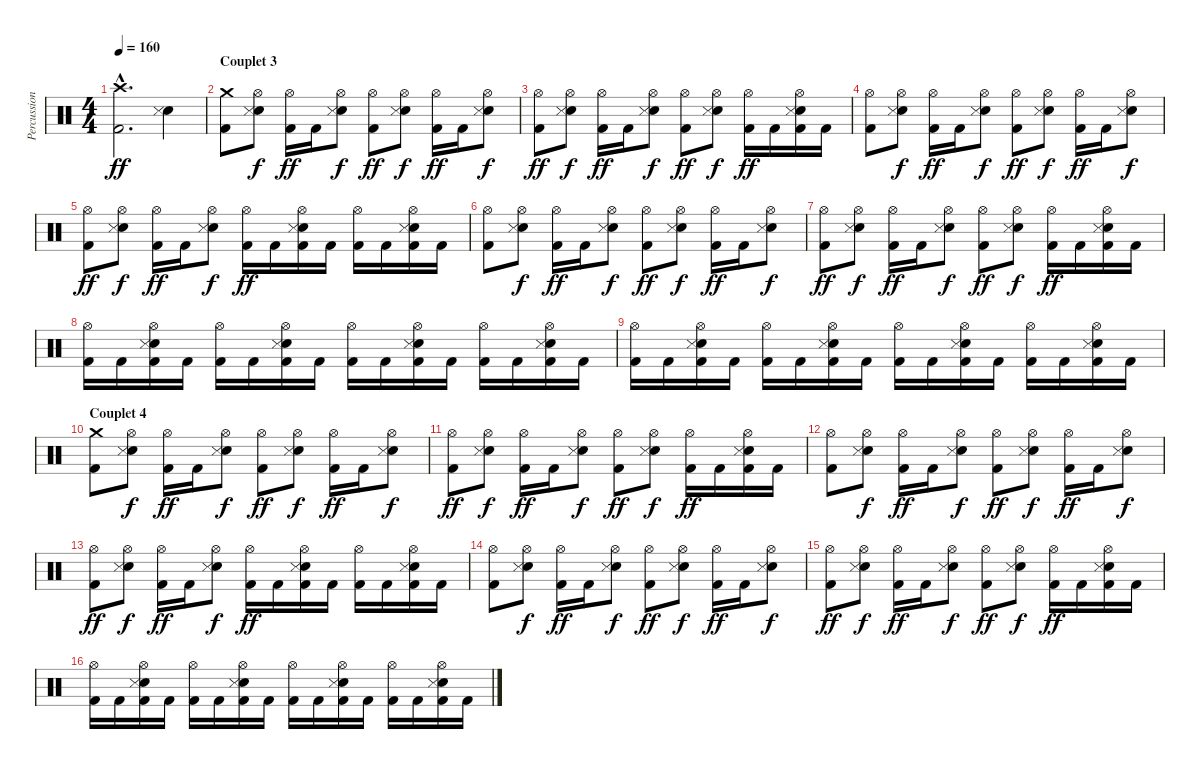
\track ("Percussions" "Percussion") {instrument percussion}
\staff {score}
\articulation defaults
\ts (4 4)
\tempo 160
\clef neutral
\ks c
("Crash high (hit)"{hac} "Kick (hit) 2"{hac}).2{d dy ff} ("Electric Snare (hit)" "Snare (side stick) 3").4 |
\section ("" "Couplet 3")
("Crash medium (hit)" "Kick (hit) 2").8 ("Hi-Hat (open)" "Electric Snare (hit)" "Snare (side stick) 3").8{dy f} ("Hi-Hat (open)" "Kick (hit) 2").16{dy ff} "Kick (hit) 2".16 ("Hi-Hat (open)" "Electric Snare (hit)" "Snare (side stick) 3").8{dy f} ("Hi-Hat (open)" "Kick (hit) 2").8{dy ff} ("Hi-Hat (open)" "Electric Snare (hit)" "Snare (side stick) 3").8{dy f} ("Hi-Hat (open)" "Kick (hit) 2").16{dy ff} "Kick (hit) 2".16 ("Hi-Hat (open)" "Electric Snare (hit)" "Snare (side stick) 3").8{dy f} |
("Hi-Hat (open)" "Kick (hit) 2").8{dy ff} ("Hi-Hat (open)" "Electric Snare (hit)" "Snare (side stick) 3").8{dy f} ("Hi-Hat (open)" "Kick (hit) 2").16{dy ff} "Kick (hit) 2".16 ("Hi-Hat (open)" "Electric Snare (hit)" "Snare (side stick) 3").8{dy f} ("Hi-Hat (open)" "Kick (hit) 2").8{dy ff} ("Hi-Hat (open)" "Electric Snare (hit)" "Snare (side stick) 3").8{dy f} ("Hi-Hat (open)" "Kick (hit) 2").16{dy ff} "Kick (hit) 2".16 ("Hi-Hat (open)" "Electric Snare (hit)" "Snare (side stick) 3" "Kick (hit) 2").16 "Kick (hit) 2".16 |
("Hi-Hat (open)" "Kick (hit) 2").8 ("Hi-Hat (open)" "Electric Snare (hit)" "Snare (side stick) 3").8{dy f} ("Hi-Hat (open)" "Kick (hit) 2").16{dy ff} "Kick (hit) 2".16 ("Hi-Hat (open)" "Electric Snare (hit)" "Snare (side stick) 3").8{dy f} ("Hi-Hat (open)" "Kick (hit) 2").8{dy ff} ("Hi-Hat (open)" "Electric Snare (hit)" "Snare (side stick) 3").8{dy f} ("Hi-Hat (open)" "Kick (hit) 2").16{dy ff} "Kick (hit) 2".16 ("Hi-Hat (open)" "Electric Snare (hit)" "Snare (side stick) 3").8{dy f} |
("Hi-Hat (open)" "Kick (hit) 2").8{dy ff} ("Hi-Hat (open)" "Electric Snare (hit)" "Snare (side stick) 3").8{dy f} ("Hi-Hat (open)" "Kick (hit) 2").16{dy ff} "Kick (hit) 2".16 ("Hi-Hat (open)" "Electric Snare (hit)" "Snare (side stick) 3").8{dy f} ("Hi-Hat (open)" "Kick (hit) 2").16{dy ff} "Kick (hit) 2".16 ("Hi-Hat (open)" "Electric Snare (hit)" "Snare (side stick) 3" "Kick (hit) 2").16 "Kick (hit) 2".16 ("Hi-Hat (open)" "Kick (hit) 2").16 "Kick (hit) 2".16 ("Hi-Hat (open)" "Electric Snare (hit)" "Snare (side stick) 3" "Kick (hit) 2").16 "Kick (hit) 2".16 |
("Hi-Hat (open)" "Kick (hit) 2").8 ("Hi-Hat (open)" "Electric Snare (hit)" "Snare (side stick) 3").8{dy f} ("Hi-Hat (open)" "Kick (hit) 2").16{dy ff} "Kick (hit) 2".16 ("Hi-Hat (open)" "Electric Snare (hit)" "Snare (side stick) 3").8{dy f} ("Hi-Hat (open)" "Kick (hit) 2").8{dy ff} ("Hi-Hat (open)" "Electric Snare (hit)" "Snare (side stick) 3").8{dy f} ("Hi-Hat (open)" "Kick (hit) 2").16{dy ff} "Kick (hit) 2".16 ("Hi-Hat (open)" "Electric Snare (hit)" "Snare (side stick) 3").8{dy f} |
("Hi-Hat (open)" "Kick (hit) 2").8{dy ff} ("Hi-Hat (open)" "Electric Snare (hit)" "Snare (side stick) 3").8{dy f} ("Hi-Hat (open)" "Kick (hit) 2").16{dy ff} "Kick (hit) 2".16 ("Hi-Hat (open)" "Electric Snare (hit)" "Snare (side stick) 3").8{dy f} ("Hi-Hat (open)" "Kick (hit) 2").8{dy ff} ("Hi-Hat (open)" "Electric Snare (hit)" "Snare (side stick) 3").8{dy f} ("Hi-Hat (open)" "Kick (hit) 2").16{dy ff} "Kick (hit) 2".16 ("Hi-Hat (open)" "Electric Snare (hit)" "Snare (side stick) 3" "Kick (hit) 2").16 "Kick (hit) 2".16 |
("Hi-Hat (open)" "Kick (hit) 2").16 "Kick (hit) 2".16 ("Hi-Hat (open)" "Electric Snare (hit)" "Snare (side stick) 3" "Kick (hit) 2").16 "Kick (hit) 2".16 ("Hi-Hat (open)" "Kick (hit) 2").16 "Kick (hit) 2".16 ("Hi-Hat (open)" "Electric Snare (hit)" "Snare (side stick) 3" "Kick (hit) 2").16 "Kick (hit) 2".16 ("Hi-Hat (open)" "Kick (hit) 2").16 "Kick (hit) 2".16 ("Hi-Hat (open)" "Electric Snare (hit)" "Snare (side stick) 3" "Kick (hit) 2").16 "Kick (hit) 2".16 ("Hi-Hat (open)" "Kick (hit) 2").16 "Kick (hit) 2".16 ("Hi-Hat (open)" "Electric Snare (hit)" "Snare (side stick) 3" "Kick (hit) 2").16 "Kick (hit) 2".16 |
("Hi-Hat (open)" "Kick (hit) 2").16 "Kick (hit) 2".16 ("Hi-Hat (open)" "Electric Snare (hit)" "Snare (side stick) 3" "Kick (hit) 2").16 "Kick (hit) 2".16 ("Hi-Hat (open)" "Kick (hit) 2").16 "Kick (hit) 2".16 ("Hi-Hat (open)" "Electric Snare (hit)" "Snare (side stick) 3" "Kick (hit) 2").16 "Kick (hit) 2".16 ("Hi-Hat (open)" "Kick (hit) 2").16 "Kick (hit) 2".16 ("Hi-Hat (open)" "Electric Snare (hit)" "Snare (side stick) 3" "Kick (hit) 2").16 "Kick (hit) 2".16 ("Hi-Hat (open)" "Kick (hit) 2").16 "Kick (hit) 2".16 ("Hi-Hat (open)" "Electric Snare (hit)" "Snare (side stick) 3" "Kick (hit) 2").16 "Kick (hit) 2".16 |
\section ("" "Couplet 4")
("Crash medium (hit)" "Kick (hit) 2").8 ("Hi-Hat (open)" "Electric Snare (hit)" "Snare (side stick) 3").8{dy f} ("Hi-Hat (open)" "Kick (hit) 2").16{dy ff} "Kick (hit) 2".16 ("Hi-Hat (open)" "Electric Snare (hit)" "Snare (side stick) 3").8{dy f} ("Hi-Hat (open)" "Kick (hit) 2").8{dy ff} ("Hi-Hat (open)" "Electric Snare (hit)" "Snare (side stick) 3").8{dy f} ("Hi-Hat (open)" "Kick (hit) 2").16{dy ff} "Kick (hit) 2".16 ("Hi-Hat (open)" "Electric Snare (hit)" "Snare (side stick) 3").8{dy f} |
("Hi-Hat (open)" "Kick (hit) 2").8{dy ff} ("Hi-Hat (open)" "Electric Snare (hit)" "Snare (side stick) 3").8{dy f} ("Hi-Hat (open)" "Kick (hit) 2").16{dy ff} "Kick (hit) 2".16 ("Hi-Hat (open)" "Electric Snare (hit)" "Snare (side stick) 3").8{dy f} ("Hi-Hat (open)" "Kick (hit) 2").8{dy ff} ("Hi-Hat (open)" "Electric Snare (hit)" "Snare (side stick) 3").8{dy f} ("Hi-Hat (open)" "Kick (hit) 2").16{dy ff} "Kick (hit) 2".16 ("Hi-Hat (open)" "Electric Snare (hit)" "Snare (side stick) 3" "Kick (hit) 2").16 "Kick (hit) 2".16 |
("Hi-Hat (open)" "Kick (hit) 2").8 ("Hi-Hat (open)" "Electric Snare (hit)" "Snare (side stick) 3").8{dy f} ("Hi-Hat (open)" "Kick (hit) 2").16{dy ff} "Kick (hit) 2".16 ("Hi-Hat (open)" "Electric Snare (hit)" "Snare (side stick) 3").8{dy f} ("Hi-Hat (open)" "Kick (hit) 2").8{dy ff} ("Hi-Hat (open)" "Electric Snare (hit)" "Snare (side stick) 3").8{dy f} ("Hi-Hat (open)" "Kick (hit) 2").16{dy ff} "Kick (hit) 2".16 ("Hi-Hat (open)" "Electric Snare (hit)" "Snare (side stick) 3").8{dy f} |
("Hi-Hat (open)" "Kick (hit) 2").8{dy ff} ("Hi-Hat (open)" "Electric Snare (hit)" "Snare (side stick) 3").8{dy f} ("Hi-Hat (open)" "Kick (hit) 2").16{dy ff} "Kick (hit) 2".16 ("Hi-Hat (open)" "Electric Snare (hit)" "Snare (side stick) 3").8{dy f} ("Hi-Hat (open)" "Kick (hit) 2").16{dy ff} "Kick (hit) 2".16 ("Hi-Hat (open)" "Electric Snare (hit)" "Snare (side stick) 3" "Kick (hit) 2").16 "Kick (hit) 2".16 ("Hi-Hat (open)" "Kick (hit) 2").16 "Kick (hit) 2".16 ("Hi-Hat (open)" "Electric Snare (hit)" "Snare (side stick) 3" "Kick (hit) 2").16 "Kick (hit) 2".16 |
("Hi-Hat (open)" "Kick (hit) 2").8 ("Hi-Hat (open)" "Electric Snare (hit)" "Snare (side stick) 3").8{dy f} ("Hi-Hat (open)" "Kick (hit) 2").16{dy ff} "Kick (hit) 2".16 ("Hi-Hat (open)" "Electric Snare (hit)" "Snare (side stick) 3").8{dy f} ("Hi-Hat (open)" "Kick (hit) 2").8{dy ff} ("Hi-Hat (open)" "Electric Snare (hit)" "Snare (side stick) 3").8{dy f} ("Hi-Hat (open)" "Kick (hit) 2").16{dy ff} "Kick (hit) 2".16 ("Hi-Hat (open)" "Electric Snare (hit)" "Snare (side stick) 3").8{dy f} |
("Hi-Hat (open)" "Kick (hit) 2").8{dy ff} ("Hi-Hat (open)" "Electric Snare (hit)" "Snare (side stick) 3").8{dy f} ("Hi-Hat (open)" "Kick (hit) 2").16{dy ff} "Kick (hit) 2".16 ("Hi-Hat (open)" "Electric Snare (hit)" "Snare (side stick) 3").8{dy f} ("Hi-Hat (open)" "Kick (hit) 2").8{dy ff} ("Hi-Hat (open)" "Electric Snare (hit)" "Snare (side stick) 3").8{dy f} ("Hi-Hat (open)" "Kick (hit) 2").16{dy ff} "Kick (hit) 2".16 ("Hi-Hat (open)" "Electric Snare (hit)" "Snare (side stick) 3" "Kick (hit) 2").16 "Kick (hit) 2".16 |
("Hi-Hat (open)" "Kick (hit) 2").16 "Kick (hit) 2".16 ("Hi-Hat (open)" "Electric Snare (hit)" "Snare (side stick) 3" "Kick (hit) 2").16 "Kick (hit) 2".16 ("Hi-Hat (open)" "Kick (hit) 2").16 "Kick (hit) 2".16 ("Hi-Hat (open)" "Electric Snare (hit)" "Snare (side stick) 3" "Kick (hit) 2").16 "Kick (hit) 2".16 ("Hi-Hat (open)" "Kick (hit) 2").16 "Kick (hit) 2".16 ("Hi-Hat (open)" "Electric Snare (hit)" "Snare (side stick) 3" "Kick (hit) 2").16 "Kick (hit) 2".16 ("Hi-Hat (open)" "Kick (hit) 2").16 "Kick (hit) 2".16 ("Hi-Hat (open)" "Electric Snare (hit)" "Snare (side stick) 3" "Kick (hit) 2").16 "Kick (hit) 2".16
